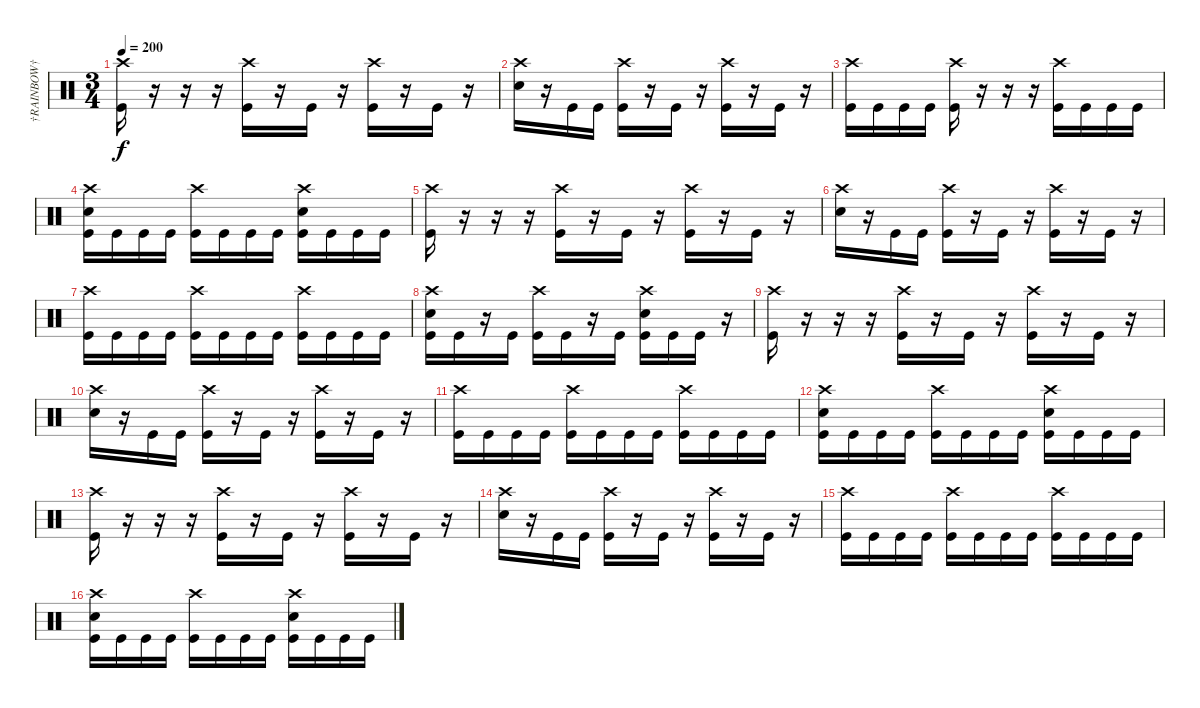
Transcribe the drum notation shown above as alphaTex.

\track ("†RAINBOW†" "†RAINBOW†") {instrument percussion}
\staff {score}
\articulation defaults
\ts (3 4)
\tempo 200
\clef neutral
\ks c
("Crash high (hit)" "Kick (hit)").16{dy f} r.16 r.16 r.16 ("Crash high (hit)" "Kick (hit)").16 r.16 "Kick (hit)".16 r.16 ("Crash high (hit)" "Kick (hit)").16 r.16 "Kick (hit)".16 r.16 |
("Crash high (hit)" "Electric Snare (hit)").16 r.16 "Kick (hit)".16 "Kick (hit)".16 ("Crash high (hit)" "Kick (hit)").16 r.16 "Kick (hit)".16 r.16 ("Crash high (hit)" "Kick (hit)").16 r.16 "Kick (hit)".16 r.16 |
("Crash high (hit)" "Kick (hit)").16 "Kick (hit)".16 "Kick (hit)".16 "Kick (hit)".16 ("Crash high (hit)" "Kick (hit)").16 r.16 r.16 r.16 ("Crash high (hit)" "Kick (hit)").16 "Kick (hit)".16 "Kick (hit)".16 "Kick (hit)".16 |
("Crash high (hit)" "Electric Snare (hit)" "Kick (hit)").16 "Kick (hit)".16 "Kick (hit)".16 "Kick (hit)".16 ("Crash high (hit)" "Kick (hit)").16 "Kick (hit)".16 "Kick (hit)".16 "Kick (hit)".16 ("Crash high (hit)" "Electric Snare (hit)" "Kick (hit)").16 "Kick (hit)".16 "Kick (hit)".16 "Kick (hit)".16 |
("Crash high (hit)" "Kick (hit)").16 r.16 r.16 r.16 ("Crash high (hit)" "Kick (hit)").16 r.16 "Kick (hit)".16 r.16 ("Crash high (hit)" "Kick (hit)").16 r.16 "Kick (hit)".16 r.16 |
("Crash high (hit)" "Electric Snare (hit)").16 r.16 "Kick (hit)".16 "Kick (hit)".16 ("Crash high (hit)" "Kick (hit)").16 r.16 "Kick (hit)".16 r.16 ("Crash high (hit)" "Kick (hit)").16 r.16 "Kick (hit)".16 r.16 |
("Crash high (hit)" "Kick (hit)").16 "Kick (hit)".16 "Kick (hit)".16 "Kick (hit)".16 ("Crash high (hit)" "Kick (hit)").16 "Kick (hit)".16 "Kick (hit)".16 "Kick (hit)".16 ("Crash high (hit)" "Kick (hit)").16 "Kick (hit)".16 "Kick (hit)".16 "Kick (hit)".16 |
("Crash high (hit)" "Electric Snare (hit)" "Kick (hit)").16 "Kick (hit)".16 r.16 "Kick (hit)".16 ("Crash high (hit)" "Kick (hit)").16 "Kick (hit)".16 r.16 "Kick (hit)".16 ("Crash high (hit)" "Electric Snare (hit)" "Kick (hit)").16 "Kick (hit)".16 "Kick (hit)".16 r.16 |
("Crash high (hit)" "Kick (hit)").16 r.16 r.16 r.16 ("Crash high (hit)" "Kick (hit)").16 r.16 "Kick (hit)".16 r.16 ("Crash high (hit)" "Kick (hit)").16 r.16 "Kick (hit)".16 r.16 |
("Crash high (hit)" "Electric Snare (hit)").16 r.16 "Kick (hit)".16 "Kick (hit)".16 ("Crash high (hit)" "Kick (hit)").16 r.16 "Kick (hit)".16 r.16 ("Crash high (hit)" "Kick (hit)").16 r.16 "Kick (hit)".16 r.16 |
("Crash high (hit)" "Kick (hit)").16 "Kick (hit)".16 "Kick (hit)".16 "Kick (hit)".16 ("Crash high (hit)" "Kick (hit)").16 "Kick (hit)".16 "Kick (hit)".16 "Kick (hit)".16 ("Crash high (hit)" "Kick (hit)").16 "Kick (hit)".16 "Kick (hit)".16 "Kick (hit)".16 |
("Crash high (hit)" "Electric Snare (hit)" "Kick (hit)").16 "Kick (hit)".16 "Kick (hit)".16 "Kick (hit)".16 ("Crash high (hit)" "Kick (hit)").16 "Kick (hit)".16 "Kick (hit)".16 "Kick (hit)".16 ("Crash high (hit)" "Electric Snare (hit)" "Kick (hit)").16 "Kick (hit)".16 "Kick (hit)".16 "Kick (hit)".16 |
("Crash high (hit)" "Kick (hit)").16 r.16 r.16 r.16 ("Crash high (hit)" "Kick (hit)").16 r.16 "Kick (hit)".16 r.16 ("Crash high (hit)" "Kick (hit)").16 r.16 "Kick (hit)".16 r.16 |
("Crash high (hit)" "Electric Snare (hit)").16 r.16 "Kick (hit)".16 "Kick (hit)".16 ("Crash high (hit)" "Kick (hit)").16 r.16 "Kick (hit)".16 r.16 ("Crash high (hit)" "Kick (hit)").16 r.16 "Kick (hit)".16 r.16 |
("Crash high (hit)" "Kick (hit)").16 "Kick (hit)".16 "Kick (hit)".16 "Kick (hit)".16 ("Crash high (hit)" "Kick (hit)").16 "Kick (hit)".16 "Kick (hit)".16 "Kick (hit)".16 ("Crash high (hit)" "Kick (hit)").16 "Kick (hit)".16 "Kick (hit)".16 "Kick (hit)".16 |
("Crash high (hit)" "Electric Snare (hit)" "Kick (hit)").16 "Kick (hit)".16 "Kick (hit)".16 "Kick (hit)".16 ("Crash high (hit)" "Kick (hit)").16 "Kick (hit)".16 "Kick (hit)".16 "Kick (hit)".16 ("Crash high (hit)" "Electric Snare (hit)" "Kick (hit)").16 "Kick (hit)".16 "Kick (hit)".16 "Kick (hit)".16
